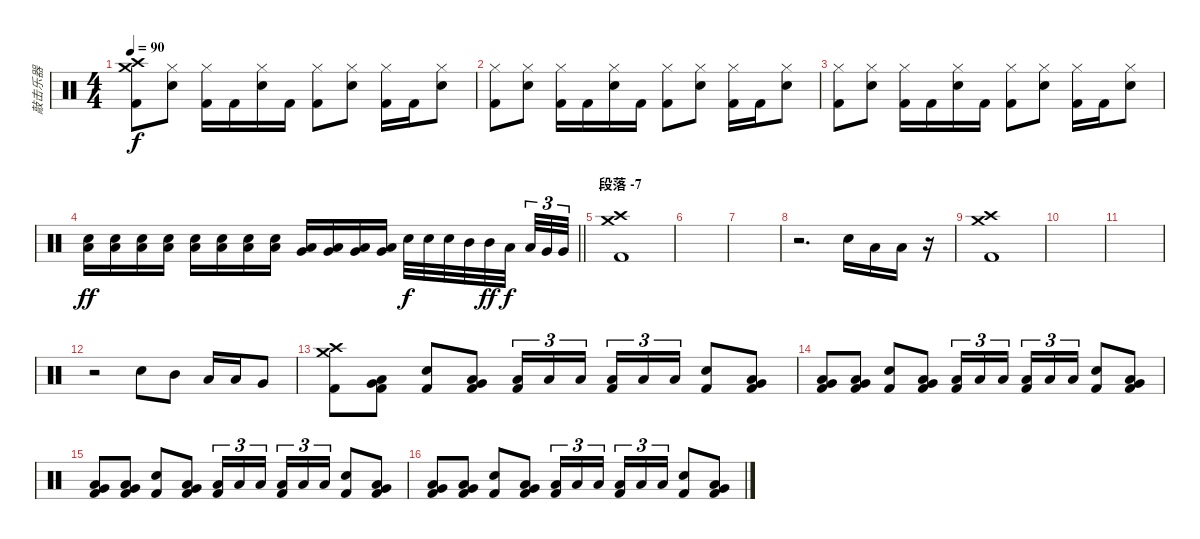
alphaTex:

\track ("敲击乐器" "敲击乐器") {instrument percussion}
\staff {score}
\articulation defaults
\ts (4 4)
\tempo 90
\clef neutral
\ks c
("Crash medium (hit)" "Crash high (hit)" "Kick (hit) 2").8{dy f} ("Hi-Hat (closed)" "Snare (hit) 2").8 ("Hi-Hat (closed)" "Kick (hit) 2").16 "Kick (hit) 2".16 ("Hi-Hat (closed)" "Snare (hit) 2").16 "Kick (hit) 2".16 ("Hi-Hat (closed)" "Kick (hit) 2").8 ("Hi-Hat (closed)" "Snare (hit) 2").8 ("Hi-Hat (closed)" "Kick (hit) 2").16 "Kick (hit) 2".16 ("Hi-Hat (closed)" "Snare (hit) 2").8 |
("Hi-Hat (closed)" "Kick (hit) 2").8 ("Hi-Hat (closed)" "Snare (hit) 2").8 ("Hi-Hat (closed)" "Kick (hit) 2").16 "Kick (hit) 2".16 ("Hi-Hat (closed)" "Snare (hit) 2").16 "Kick (hit) 2".16 ("Hi-Hat (closed)" "Kick (hit) 2").8 ("Hi-Hat (closed)" "Snare (hit) 2").8 ("Hi-Hat (closed)" "Kick (hit) 2").16 "Kick (hit) 2".16 ("Hi-Hat (closed)" "Snare (hit) 2").8 |
("Hi-Hat (closed)" "Kick (hit) 2").8 ("Hi-Hat (closed)" "Snare (hit) 2").8 ("Hi-Hat (closed)" "Kick (hit) 2").16 "Kick (hit) 2".16 ("Hi-Hat (closed)" "Snare (hit) 2").16 "Kick (hit) 2".16 ("Hi-Hat (closed)" "Kick (hit) 2").8 ("Hi-Hat (closed)" "Snare (hit) 2").8 ("Hi-Hat (closed)" "Kick (hit) 2").16 "Kick (hit) 2".16 ("Hi-Hat (closed)" "Snare (hit) 2").8 |
\barLineRight lightlight
("Low Floor Tom (hit)" "Snare (hit) 2").16{dy ff} ("Low Floor Tom (hit)" "Snare (hit) 2").16 ("Low Floor Tom (hit)" "Snare (hit) 2").16 ("Low Floor Tom (hit)" "Snare (hit) 2").16 ("Low Floor Tom (hit)" "Snare (hit) 2").16 ("Low Floor Tom (hit)" "Snare (hit) 2").16 ("Low Floor Tom (hit)" "Snare (hit) 2").16 ("Low Floor Tom (hit)" "Snare (hit) 2").16 ("Very Low Tom (hit)" "Low Tom (hit)").16 ("Very Low Tom (hit)" "Low Tom (hit)").16 ("Very Low Tom (hit)" "Low Tom (hit)").16 ("Very Low Tom (hit)" "Low Tom (hit)").16 "Snare (hit) 2".32{dy f} "Snare (hit) 2".32 "Snare (hit) 2".32 "Mid Tom (hit)".32 "Mid Tom (hit)".32{dy ff} "Low Tom (hit)".32{dy f beam splitsecondary} "Low Tom (hit)".32{tu (3 2)} "Very Low Tom (hit)".32{tu (3 2)} "Very Low Tom (hit)".32{tu (3 2)} |
\section ("" "段落 -7")
("Crash medium (hit)" "Crash high (hit)" "Kick (hit) 2").1 |
|
|
r.2{d} "Snare (hit) 2".16 "Low Tom (hit)".16 "Low Tom (hit)".16 r.16 |
("Crash high (hit)" "Crash medium (hit)" "Kick (hit) 2").1 |
|
|
r.2 "Snare (hit) 2".8 "Mid Tom (hit)".8 "Low Tom (hit)".16 "Low Tom (hit)".16 "Very Low Tom (hit)".8 |
("Crash high (hit)" "Crash medium (hit)" "Kick (hit) 2").8 ("Very Low Tom (hit)" "Low Floor Tom (hit)" "Kick (hit) 2").8 ("Snare (hit) 2" "Kick (hit) 2").8 ("Very Low Tom (hit)" "Low Floor Tom (hit)" "Kick (hit) 2").8 ("Low Floor Tom (hit)" "Kick (hit) 2").16{tu (3 2)} "Low Floor Tom (hit)".16{tu (3 2)} "Low Floor Tom (hit)".16{tu (3 2) beam splitsecondary} ("Low Floor Tom (hit)" "Kick (hit) 2").16{tu (3 2)} "Low Floor Tom (hit)".16{tu (3 2)} "Low Floor Tom (hit)".16{tu (3 2)} ("Snare (hit) 2" "Kick (hit) 2").8 ("Very Low Tom (hit)" "Low Floor Tom (hit)" "Kick (hit) 2").8 |
("Very Low Tom (hit)" "Low Floor Tom (hit)" "Kick (hit) 2").8 ("Very Low Tom (hit)" "Low Floor Tom (hit)" "Kick (hit) 2").8 ("Snare (hit) 2" "Kick (hit) 2").8 ("Very Low Tom (hit)" "Low Floor Tom (hit)" "Kick (hit) 2").8 ("Low Floor Tom (hit)" "Kick (hit) 2").16{tu (3 2)} "Low Floor Tom (hit)".16{tu (3 2)} "Low Floor Tom (hit)".16{tu (3 2) beam splitsecondary} ("Low Floor Tom (hit)" "Kick (hit) 2").16{tu (3 2)} "Low Floor Tom (hit)".16{tu (3 2)} "Low Floor Tom (hit)".16{tu (3 2)} ("Snare (hit) 2" "Kick (hit) 2").8 ("Very Low Tom (hit)" "Low Floor Tom (hit)" "Kick (hit) 2").8 |
("Very Low Tom (hit)" "Low Floor Tom (hit)" "Kick (hit) 2").8 ("Very Low Tom (hit)" "Low Floor Tom (hit)" "Kick (hit) 2").8 ("Snare (hit) 2" "Kick (hit) 2").8 ("Very Low Tom (hit)" "Low Floor Tom (hit)" "Kick (hit) 2").8 ("Low Floor Tom (hit)" "Kick (hit) 2").16{tu (3 2)} "Low Floor Tom (hit)".16{tu (3 2)} "Low Floor Tom (hit)".16{tu (3 2) beam splitsecondary} ("Low Floor Tom (hit)" "Kick (hit) 2").16{tu (3 2)} "Low Floor Tom (hit)".16{tu (3 2)} "Low Floor Tom (hit)".16{tu (3 2)} ("Snare (hit) 2" "Kick (hit) 2").8 ("Very Low Tom (hit)" "Low Floor Tom (hit)" "Kick (hit) 2").8 |
("Very Low Tom (hit)" "Low Floor Tom (hit)" "Kick (hit) 2").8 ("Very Low Tom (hit)" "Low Floor Tom (hit)" "Kick (hit) 2").8 ("Snare (hit) 2" "Kick (hit) 2").8 ("Very Low Tom (hit)" "Low Floor Tom (hit)" "Kick (hit) 2").8 ("Low Floor Tom (hit)" "Kick (hit) 2").16{tu (3 2)} "Low Floor Tom (hit)".16{tu (3 2)} "Low Floor Tom (hit)".16{tu (3 2) beam splitsecondary} ("Low Floor Tom (hit)" "Kick (hit) 2").16{tu (3 2)} "Low Floor Tom (hit)".16{tu (3 2)} "Low Floor Tom (hit)".16{tu (3 2)} ("Snare (hit) 2" "Kick (hit) 2").8 ("Very Low Tom (hit)" "Low Floor Tom (hit)" "Kick (hit) 2").8
